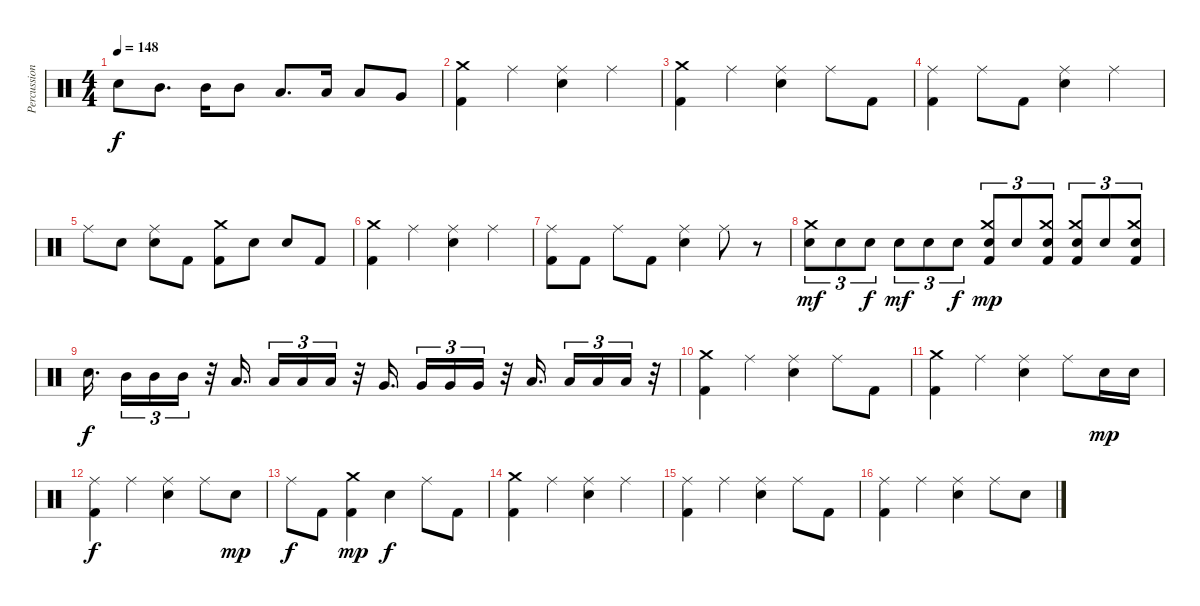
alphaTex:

\track ("Percussion" "Percussion") {instrument percussion}
\staff {score}
\articulation defaults
\ts (4 4)
\tempo 148
\clef neutral
\ks c "Electric Snare (hit)".8{dy f} "Mid Tom (hit)".8{d} "Mid Tom (hit)".16 "Mid Tom (hit)".8 "Low Tom (hit)".8{d} "Low Tom (hit)".16 "Low Tom (hit)".8 "Very Low Tom (hit)".8
|
("Crash medium (hit)" "Kick (hit) 2").4 "Ride (middle)".4 ("Ride (middle)" "Electric Snare (hit)").4 "Ride (middle)".4 |
("Crash medium (hit)" "Kick (hit) 2").4 "Ride (middle)".4 ("Ride (middle)" "Electric Snare (hit)").4 "Ride (middle)".8 "Kick (hit) 2".8 |
("Ride (middle)" "Kick (hit) 2").4 "Ride (middle)".8 "Kick (hit) 2".8 ("Ride (middle)" "Electric Snare (hit)").4 "Ride (middle)".4 |
"Ride (middle)".8 "Electric Snare (hit)".8 ("Ride (middle)" "Electric Snare (hit)").8 "Kick (hit) 2".8 ("Crash medium (hit)" "Kick (hit) 2").8 "Electric Snare (hit)".8 "Electric Snare (hit)".8 "Kick (hit) 2".8 |
("Crash medium (hit)" "Kick (hit) 2").4 "Ride (middle)".4 ("Ride (middle)" "Electric Snare (hit)").4 "Ride (middle)".4 |
("Ride (middle)" "Kick (hit) 2").8 "Kick (hit) 2".8 "Ride (middle)".8 "Kick (hit) 2".8 ("Ride (middle)" "Electric Snare (hit)").4 "Ride (middle)".8 r.8 |
("Crash medium (hit)" "Electric Snare (hit)").8{tu (3 2) dy mf} "Electric Snare (hit)".8{tu (3 2)} "Electric Snare (hit)".8{tu (3 2) dy f} "Electric Snare (hit)".8{tu (3 2) dy mf} "Electric Snare (hit)".8{tu (3 2)} "Electric Snare (hit)".8{tu (3 2) dy f} ("Crash medium (hit)" "Electric Snare (hit)" "Kick (hit) 2").8{tu (3 2) dy mp} "Electric Snare (hit)".8{tu (3 2)} ("Crash medium (hit)" "Electric Snare (hit)" "Kick (hit) 2").8{tu (3 2)} ("Crash medium (hit)" "Electric Snare (hit)" "Kick (hit) 2").8{tu (3 2)} "Electric Snare (hit)".8{tu (3 2)} ("Crash medium (hit)" "Electric Snare (hit)" "Kick (hit) 2").8{tu (3 2)} |
"Electric Snare (hit)".16{d dy f beam splitsecondary} "Mid Tom (hit)".16{tu (3 2)} "Mid Tom (hit)".16{tu (3 2)} "Mid Tom (hit)".16{tu (3 2)} r.32 "Low Tom (hit)".16{d beam splitsecondary} "Low Tom (hit)".16{tu (3 2)} "Low Tom (hit)".16{tu (3 2)} "Low Tom (hit)".16{tu (3 2)} r.32 "Very Low Tom (hit)".16{d beam splitsecondary} "Very Low Tom (hit)".16{tu (3 2)} "Very Low Tom (hit)".16{tu (3 2)} "Very Low Tom (hit)".16{tu (3 2)} r.32 "Low Floor Tom (hit)".16{d beam splitsecondary} "Low Floor Tom (hit)".16{tu (3 2)} "Low Floor Tom (hit)".16{tu (3 2)} "Low Floor Tom (hit)".16{tu (3 2)} r.32 |
("Crash medium (hit)" "Kick (hit) 2").4 "Ride (middle)".4 ("Ride (middle)" "Electric Snare (hit)").4 "Ride (middle)".8 "Kick (hit) 2".8 |
("Crash medium (hit)" "Kick (hit) 2").4 "Ride (middle)".4 ("Ride (middle)" "Electric Snare (hit)").4 "Ride (middle)".8 "Electric Snare (hit)".16{dy mp} "Electric Snare (hit)".16 |
("Ride (middle)" "Kick (hit) 2").4{dy f} "Ride (middle)".4 ("Ride (middle)" "Electric Snare (hit)").4 "Ride (middle)".8 "Electric Snare (hit)".8{dy mp} |
"Ride (middle)".8{dy f} "Kick (hit) 2".8 ("Crash medium (hit)" "Kick (hit) 2").4{dy mp} "Electric Snare (hit)".4{dy f} "Ride (middle)".8 "Kick (hit) 2".8 |
("Crash medium (hit)" "Kick (hit) 2").4 "Ride (middle)".4 ("Ride (middle)" "Electric Snare (hit)").4 "Ride (middle)".4 |
("Ride (middle)" "Kick (hit) 2").4 "Ride (middle)".4 ("Ride (middle)" "Electric Snare (hit)").4 "Ride (middle)".8 "Kick (hit) 2".8 |
("Ride (middle)" "Kick (hit) 2").4 "Ride (middle)".4 ("Ride (middle)" "Electric Snare (hit)").4 "Ride (middle)".8 "Electric Snare (hit)".8
